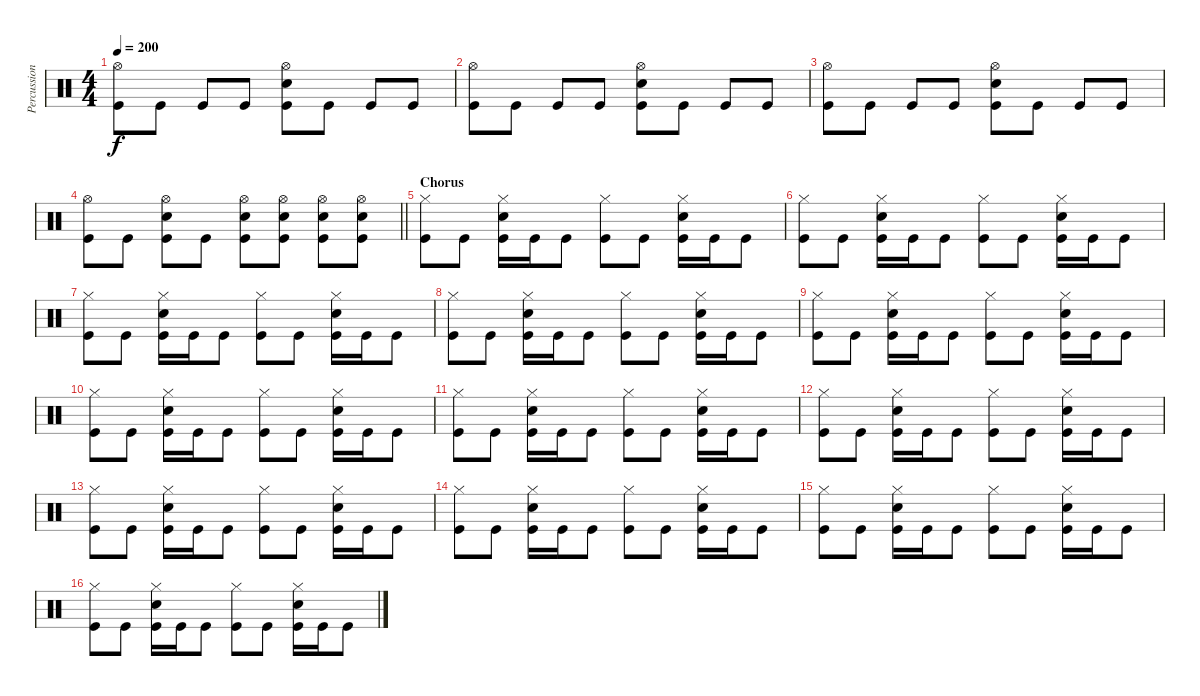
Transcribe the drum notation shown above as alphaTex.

\track ("Percussion" "Percussion") {instrument percussion}
\staff {score}
\articulation defaults
\ts (4 4)
\tempo 200
\clef neutral
\ks c
("Hi-Hat (open)" "Kick (hit)").8{dy f} "Kick (hit)".8 "Kick (hit)".8 "Kick (hit)".8 ("Snare (hit) 2" "Hi-Hat (open)" "Kick (hit)").8 "Kick (hit)".8 "Kick (hit)".8 "Kick (hit)".8 |
("Hi-Hat (open)" "Kick (hit)").8 "Kick (hit)".8 "Kick (hit)".8 "Kick (hit)".8 ("Snare (hit) 2" "Hi-Hat (open)" "Kick (hit)").8 "Kick (hit)".8 "Kick (hit)".8 "Kick (hit)".8 |
("Hi-Hat (open)" "Kick (hit)").8 "Kick (hit)".8 "Kick (hit)".8 "Kick (hit)".8 ("Snare (hit) 2" "Hi-Hat (open)" "Kick (hit)").8 "Kick (hit)".8 "Kick (hit)".8 "Kick (hit)".8 |
\barLineRight lightlight
("Hi-Hat (open)" "Kick (hit)").8 "Kick (hit)".8 ("Snare (hit) 2" "Hi-Hat (open)" "Kick (hit)").8 "Kick (hit)".8 ("Snare (hit) 2" "Hi-Hat (open)" "Kick (hit)").8 ("Snare (hit) 2" "Hi-Hat (open)" "Kick (hit)").8 ("Snare (hit) 2" "Hi-Hat (open)" "Kick (hit)").8 ("Snare (hit) 2" "Hi-Hat (open)" "Kick (hit)").8 |
\section ("" "Chorus")
("Hi-Hat (closed)" "Kick (hit)").8 "Kick (hit)".8 ("Snare (hit) 2" "Hi-Hat (closed)" "Kick (hit)").16 "Kick (hit)".16 "Kick (hit)".8 ("Hi-Hat (closed)" "Kick (hit)").8 "Kick (hit)".8 ("Snare (hit) 2" "Hi-Hat (closed)" "Kick (hit)").16 "Kick (hit)".16 "Kick (hit)".8 |
("Hi-Hat (closed)" "Kick (hit)").8 "Kick (hit)".8 ("Snare (hit) 2" "Hi-Hat (closed)" "Kick (hit)").16 "Kick (hit)".16 "Kick (hit)".8 ("Hi-Hat (closed)" "Kick (hit)").8 "Kick (hit)".8 ("Snare (hit) 2" "Hi-Hat (closed)" "Kick (hit)").16 "Kick (hit)".16 "Kick (hit)".8 |
("Hi-Hat (closed)" "Kick (hit)").8 "Kick (hit)".8 ("Snare (hit) 2" "Hi-Hat (closed)" "Kick (hit)").16 "Kick (hit)".16 "Kick (hit)".8 ("Hi-Hat (closed)" "Kick (hit)").8 "Kick (hit)".8 ("Snare (hit) 2" "Hi-Hat (closed)" "Kick (hit)").16 "Kick (hit)".16 "Kick (hit)".8 |
("Hi-Hat (closed)" "Kick (hit)").8 "Kick (hit)".8 ("Snare (hit) 2" "Hi-Hat (closed)" "Kick (hit)").16 "Kick (hit)".16 "Kick (hit)".8 ("Hi-Hat (closed)" "Kick (hit)").8 "Kick (hit)".8 ("Snare (hit) 2" "Hi-Hat (closed)" "Kick (hit)").16 "Kick (hit)".16 "Kick (hit)".8 |
("Hi-Hat (closed)" "Kick (hit)").8 "Kick (hit)".8 ("Snare (hit) 2" "Hi-Hat (closed)" "Kick (hit)").16 "Kick (hit)".16 "Kick (hit)".8 ("Hi-Hat (closed)" "Kick (hit)").8 "Kick (hit)".8 ("Snare (hit) 2" "Hi-Hat (closed)" "Kick (hit)").16 "Kick (hit)".16 "Kick (hit)".8 |
("Hi-Hat (closed)" "Kick (hit)").8 "Kick (hit)".8 ("Snare (hit) 2" "Hi-Hat (closed)" "Kick (hit)").16 "Kick (hit)".16 "Kick (hit)".8 ("Hi-Hat (closed)" "Kick (hit)").8 "Kick (hit)".8 ("Snare (hit) 2" "Hi-Hat (closed)" "Kick (hit)").16 "Kick (hit)".16 "Kick (hit)".8 |
("Hi-Hat (closed)" "Kick (hit)").8 "Kick (hit)".8 ("Snare (hit) 2" "Hi-Hat (closed)" "Kick (hit)").16 "Kick (hit)".16 "Kick (hit)".8 ("Hi-Hat (closed)" "Kick (hit)").8 "Kick (hit)".8 ("Snare (hit) 2" "Hi-Hat (closed)" "Kick (hit)").16 "Kick (hit)".16 "Kick (hit)".8 |
("Hi-Hat (closed)" "Kick (hit)").8 "Kick (hit)".8 ("Snare (hit) 2" "Hi-Hat (closed)" "Kick (hit)").16 "Kick (hit)".16 "Kick (hit)".8 ("Hi-Hat (closed)" "Kick (hit)").8 "Kick (hit)".8 ("Snare (hit) 2" "Hi-Hat (closed)" "Kick (hit)").16 "Kick (hit)".16 "Kick (hit)".8 |
("Hi-Hat (closed)" "Kick (hit)").8 "Kick (hit)".8 ("Snare (hit) 2" "Hi-Hat (closed)" "Kick (hit)").16 "Kick (hit)".16 "Kick (hit)".8 ("Hi-Hat (closed)" "Kick (hit)").8 "Kick (hit)".8 ("Snare (hit) 2" "Hi-Hat (closed)" "Kick (hit)").16 "Kick (hit)".16 "Kick (hit)".8 |
("Hi-Hat (closed)" "Kick (hit)").8 "Kick (hit)".8 ("Snare (hit) 2" "Hi-Hat (closed)" "Kick (hit)").16 "Kick (hit)".16 "Kick (hit)".8 ("Hi-Hat (closed)" "Kick (hit)").8 "Kick (hit)".8 ("Snare (hit) 2" "Hi-Hat (closed)" "Kick (hit)").16 "Kick (hit)".16 "Kick (hit)".8 |
("Hi-Hat (closed)" "Kick (hit)").8 "Kick (hit)".8 ("Snare (hit) 2" "Hi-Hat (closed)" "Kick (hit)").16 "Kick (hit)".16 "Kick (hit)".8 ("Hi-Hat (closed)" "Kick (hit)").8 "Kick (hit)".8 ("Snare (hit) 2" "Hi-Hat (closed)" "Kick (hit)").16 "Kick (hit)".16 "Kick (hit)".8 |
("Hi-Hat (closed)" "Kick (hit)").8 "Kick (hit)".8 ("Snare (hit) 2" "Hi-Hat (closed)" "Kick (hit)").16 "Kick (hit)".16 "Kick (hit)".8 ("Hi-Hat (closed)" "Kick (hit)").8 "Kick (hit)".8 ("Snare (hit) 2" "Hi-Hat (closed)" "Kick (hit)").16 "Kick (hit)".16 "Kick (hit)".8
